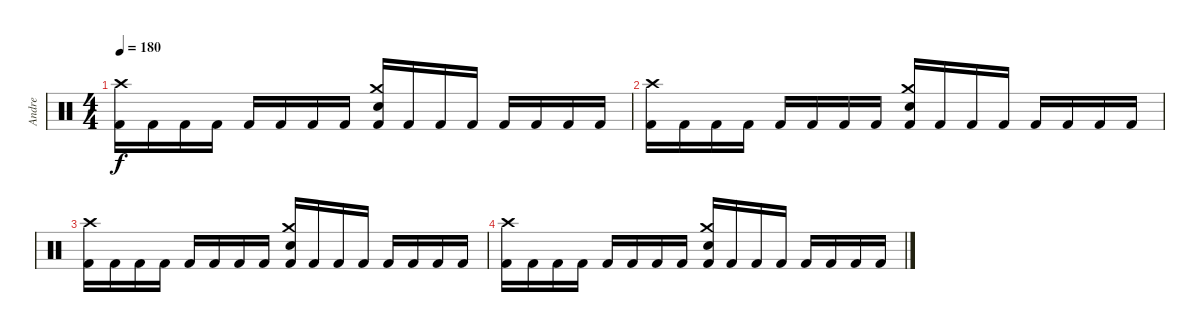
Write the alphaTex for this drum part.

\track ("Andre" "Andre") {instrument percussion}
\staff {score}
\articulation defaults
\ts (4 4)
\tempo 180
\clef neutral
\ks c
("Crash high (hit)" "Kick (hit) 2").16{dy f} "Kick (hit) 2".16 "Kick (hit) 2".16 "Kick (hit) 2".16 "Kick (hit) 2".16 "Kick (hit) 2".16 "Kick (hit) 2".16 "Kick (hit) 2".16 ("Crash medium (hit)" "Snare (hit) 2" "Kick (hit) 2").16 "Kick (hit) 2".16 "Kick (hit) 2".16 "Kick (hit) 2".16 "Kick (hit) 2".16 "Kick (hit) 2".16 "Kick (hit) 2".16 "Kick (hit) 2".16 |
("Crash high (hit)" "Kick (hit) 2").16 "Kick (hit) 2".16 "Kick (hit) 2".16 "Kick (hit) 2".16 "Kick (hit) 2".16 "Kick (hit) 2".16 "Kick (hit) 2".16 "Kick (hit) 2".16 ("Crash medium (hit)" "Snare (hit) 2" "Kick (hit) 2").16 "Kick (hit) 2".16 "Kick (hit) 2".16 "Kick (hit) 2".16 "Kick (hit) 2".16 "Kick (hit) 2".16 "Kick (hit) 2".16 "Kick (hit) 2".16 |
("Crash high (hit)" "Kick (hit) 2").16 "Kick (hit) 2".16 "Kick (hit) 2".16 "Kick (hit) 2".16 "Kick (hit) 2".16 "Kick (hit) 2".16 "Kick (hit) 2".16 "Kick (hit) 2".16 ("Crash medium (hit)" "Snare (hit) 2" "Kick (hit) 2").16 "Kick (hit) 2".16 "Kick (hit) 2".16 "Kick (hit) 2".16 "Kick (hit) 2".16 "Kick (hit) 2".16 "Kick (hit) 2".16 "Kick (hit) 2".16 |
("Crash high (hit)" "Kick (hit) 2").16 "Kick (hit) 2".16 "Kick (hit) 2".16 "Kick (hit) 2".16 "Kick (hit) 2".16 "Kick (hit) 2".16 "Kick (hit) 2".16 "Kick (hit) 2".16 ("Crash medium (hit)" "Snare (hit) 2" "Kick (hit) 2").16 "Kick (hit) 2".16 "Kick (hit) 2".16 "Kick (hit) 2".16 "Kick (hit) 2".16 "Kick (hit) 2".16 "Kick (hit) 2".16 "Kick (hit) 2".16
